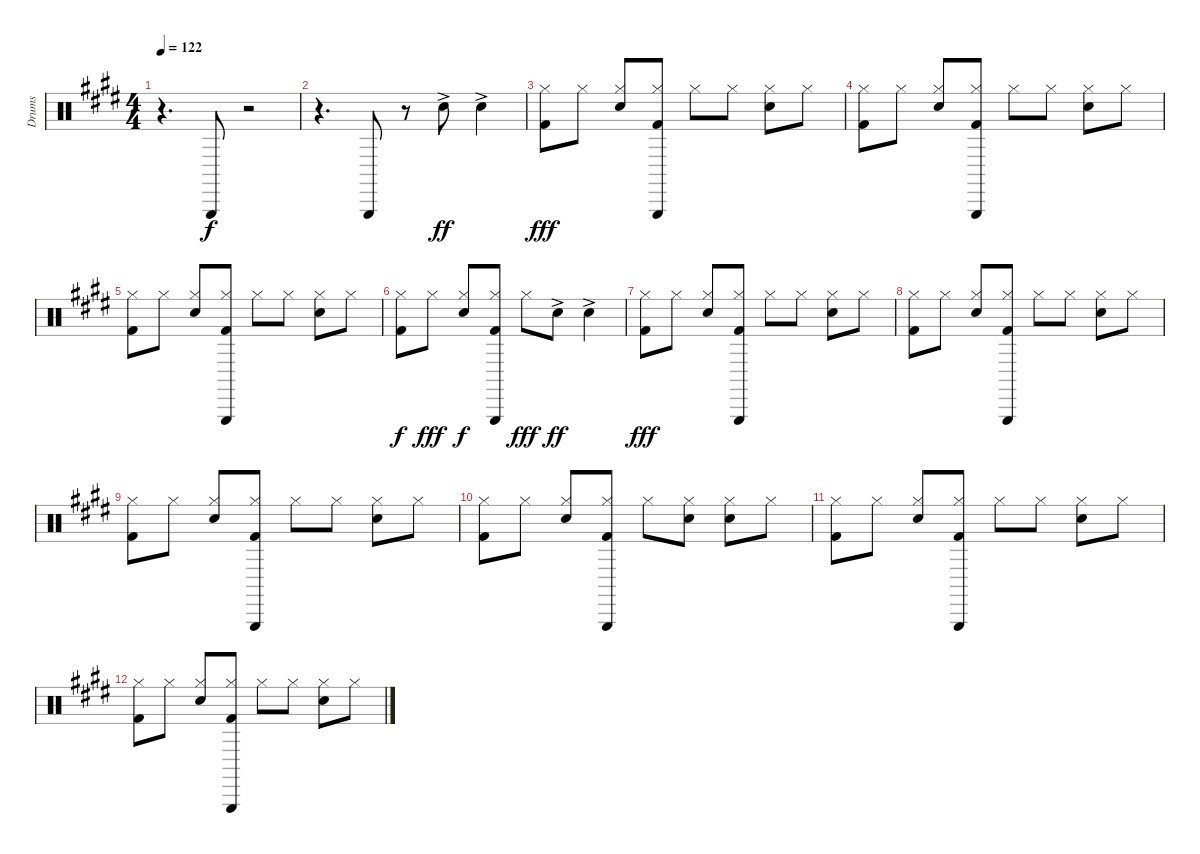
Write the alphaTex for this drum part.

\track ("Drums" "Drums") {instrument percussion}
\staff {score}
\articulation defaults
\ts (4 4)
\tempo 122
\clef neutral
\ks e
r.4{d dy f} "Triangle (hit)".8 r.2 |
r.4{d} "Triangle (hit)".8 r.8 "Electric Snare (hit)"{ac}.8{dy ff} "Electric Snare (hit)"{ac}.4 |
("Hi-Hat (closed)" "Kick (hit) 2").8{dy fff} "Hi-Hat (closed)".8 ("Hi-Hat (closed)" "Electric Snare (hit)").8 ("Hi-Hat (closed)" "Triangle (hit)" "Kick (hit) 2").8 "Hi-Hat (closed)".8 "Hi-Hat (closed)".8 ("Hi-Hat (closed)" "Electric Snare (hit)").8 "Hi-Hat (closed)".8 |
("Hi-Hat (closed)" "Kick (hit) 2").8 "Hi-Hat (closed)".8 ("Hi-Hat (closed)" "Electric Snare (hit)").8 ("Hi-Hat (closed)" "Triangle (hit)" "Kick (hit) 2").8 "Hi-Hat (closed)".8 "Hi-Hat (closed)".8 ("Hi-Hat (closed)" "Electric Snare (hit)").8 "Hi-Hat (closed)".8 |
("Hi-Hat (closed)" "Kick (hit) 2").8 "Hi-Hat (closed)".8 ("Hi-Hat (closed)" "Electric Snare (hit)").8 ("Hi-Hat (closed)" "Triangle (hit)" "Kick (hit) 2").8 "Hi-Hat (closed)".8 "Hi-Hat (closed)".8 ("Hi-Hat (closed)" "Electric Snare (hit)").8 "Hi-Hat (closed)".8 |
("Hi-Hat (closed)" "Kick (hit) 2").8{dy f} "Hi-Hat (closed)".8{dy fff} ("Hi-Hat (closed)" "Electric Snare (hit)").8{dy f} ("Hi-Hat (closed)" "Triangle (hit)" "Kick (hit) 2").8 "Hi-Hat (closed)".8{dy fff} "Electric Snare (hit)"{ac}.8{dy ff} "Electric Snare (hit)"{ac}.4 |
("Hi-Hat (closed)" "Kick (hit) 2").8{dy fff} "Hi-Hat (closed)".8 ("Hi-Hat (closed)" "Electric Snare (hit)").8 ("Hi-Hat (closed)" "Triangle (hit)" "Kick (hit) 2").8 "Hi-Hat (closed)".8 "Hi-Hat (closed)".8 ("Hi-Hat (closed)" "Electric Snare (hit)").8 "Hi-Hat (closed)".8 |
("Hi-Hat (closed)" "Kick (hit) 2").8 "Hi-Hat (closed)".8 ("Hi-Hat (closed)" "Electric Snare (hit)").8 ("Hi-Hat (closed)" "Triangle (hit)" "Kick (hit) 2").8 "Hi-Hat (closed)".8 "Hi-Hat (closed)".8 ("Hi-Hat (closed)" "Electric Snare (hit)").8 "Hi-Hat (closed)".8 |
("Hi-Hat (closed)" "Kick (hit) 2").8 "Hi-Hat (closed)".8 ("Hi-Hat (closed)" "Electric Snare (hit)").8 ("Hi-Hat (closed)" "Triangle (hit)" "Kick (hit) 2").8 "Hi-Hat (closed)".8 "Hi-Hat (closed)".8 ("Hi-Hat (closed)" "Electric Snare (hit)").8 "Hi-Hat (closed)".8 |
("Hi-Hat (closed)" "Kick (hit) 2").8 "Hi-Hat (closed)".8 ("Hi-Hat (closed)" "Electric Snare (hit)").8 ("Hi-Hat (closed)" "Triangle (hit)" "Kick (hit) 2").8 "Hi-Hat (closed)".8 ("Hi-Hat (closed)" "Electric Snare (hit)").8 ("Hi-Hat (closed)" "Electric Snare (hit)").8 "Hi-Hat (closed)".8 |
("Hi-Hat (closed)" "Kick (hit) 2").8 "Hi-Hat (closed)".8 ("Hi-Hat (closed)" "Electric Snare (hit)").8 ("Hi-Hat (closed)" "Triangle (hit)" "Kick (hit) 2").8 "Hi-Hat (closed)".8 "Hi-Hat (closed)".8 ("Hi-Hat (closed)" "Electric Snare (hit)").8 "Hi-Hat (closed)".8 |
("Hi-Hat (closed)" "Kick (hit) 2").8 "Hi-Hat (closed)".8 ("Hi-Hat (closed)" "Electric Snare (hit)").8 ("Hi-Hat (closed)" "Triangle (hit)" "Kick (hit) 2").8 "Hi-Hat (closed)".8 "Hi-Hat (closed)".8 ("Hi-Hat (closed)" "Electric Snare (hit)").8 "Hi-Hat (closed)".8
